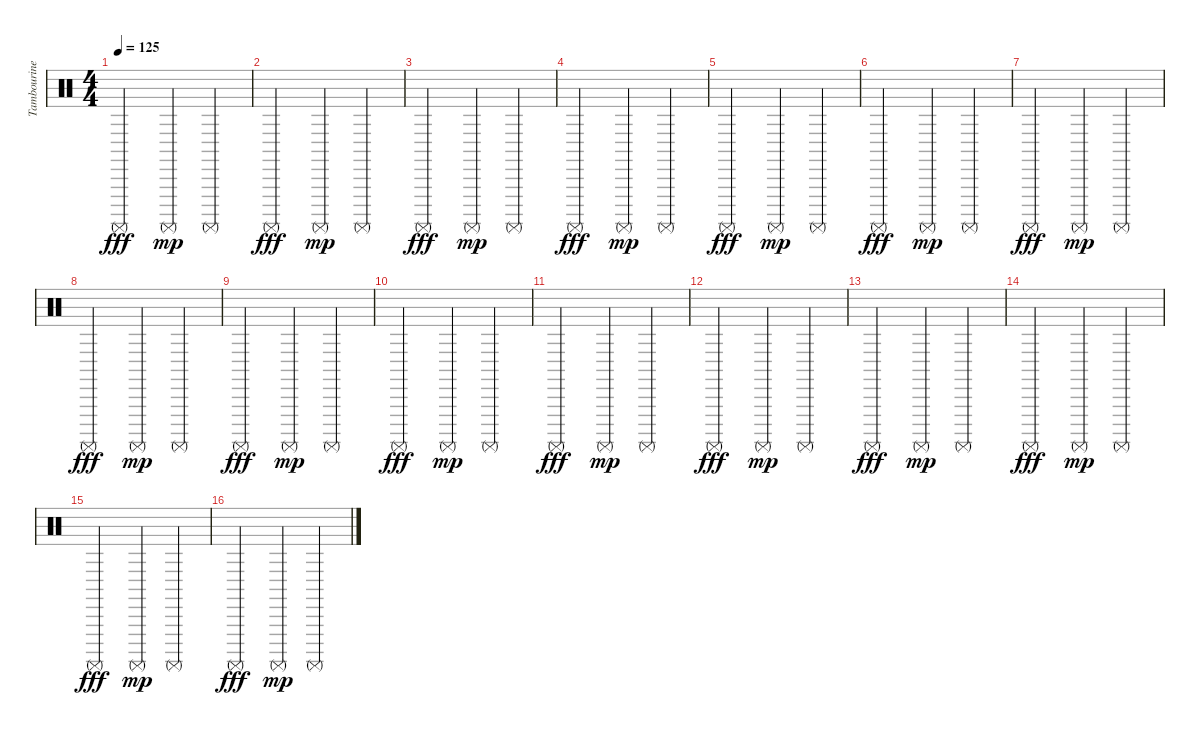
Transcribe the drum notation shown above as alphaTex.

\track ("Tambourine" "Tambourine") {instrument percussion}
\staff {score}
\articulation defaults
\ts (4 4)
\tempo 125
\clef neutral
\ks c "Surdo (mute)".2{dy fff} "Surdo (mute)".4{dy mp} "Surdo (mute)".4
|
"Surdo (mute)".2{dy fff} "Surdo (mute)".4{dy mp} "Surdo (mute)".4 |
"Surdo (mute)".2{dy fff} "Surdo (mute)".4{dy mp} "Surdo (mute)".4 |
"Surdo (mute)".2{dy fff} "Surdo (mute)".4{dy mp} "Surdo (mute)".4 |
"Surdo (mute)".2{dy fff} "Surdo (mute)".4{dy mp} "Surdo (mute)".4 |
"Surdo (mute)".2{dy fff} "Surdo (mute)".4{dy mp} "Surdo (mute)".4 |
"Surdo (mute)".2{dy fff} "Surdo (mute)".4{dy mp} "Surdo (mute)".4 |
"Surdo (mute)".2{dy fff} "Surdo (mute)".4{dy mp} "Surdo (mute)".4 |
"Surdo (mute)".2{dy fff} "Surdo (mute)".4{dy mp} "Surdo (mute)".4 |
"Surdo (mute)".2{dy fff} "Surdo (mute)".4{dy mp} "Surdo (mute)".4 |
"Surdo (mute)".2{dy fff} "Surdo (mute)".4{dy mp} "Surdo (mute)".4 |
"Surdo (mute)".2{dy fff} "Surdo (mute)".4{dy mp} "Surdo (mute)".4 |
"Surdo (mute)".2{dy fff} "Surdo (mute)".4{dy mp} "Surdo (mute)".4 |
"Surdo (mute)".2{dy fff} "Surdo (mute)".4{dy mp} "Surdo (mute)".4 |
"Surdo (mute)".2{dy fff} "Surdo (mute)".4{dy mp} "Surdo (mute)".4 |
"Surdo (mute)".2{dy fff} "Surdo (mute)".4{dy mp} "Surdo (mute)".4
